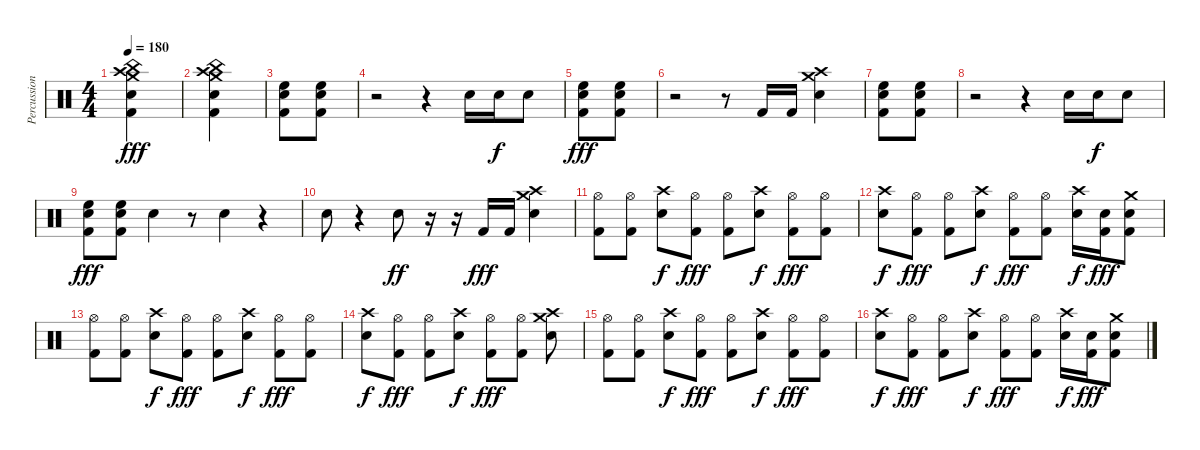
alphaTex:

\track ("Percussion" "Percussion") {instrument percussion}
\staff {score}
\articulation defaults
\ts (4 4)
\tempo 180
\clef neutral
\ks c
("Crash medium (hit)" "China (hit)" "Crash high (hit)" "Snare (hit) 2" "Kick (hit) 2").4{dy fff} |
("Crash medium (hit)" "China (hit)" "Crash high (hit)" "Snare (hit) 2" "Kick (hit) 2").4 |
("High Floor Tom (hit)" "Snare (hit) 2" "Kick (hit) 2").8 ("High Floor Tom (hit)" "Snare (hit) 2" "Kick (hit) 2").8 |
r.2 r.4 "Snare (hit) 2".16 "Snare (hit) 2".16{dy f} "Snare (hit) 2".8 |
("High Floor Tom (hit)" "Snare (hit) 2" "Kick (hit) 2").8{dy fff} ("High Floor Tom (hit)" "Snare (hit) 2" "Kick (hit) 2").8 |
r.2 r.8 "Kick (hit) 2".16 "Kick (hit) 2".16 ("Crash medium (hit)" "Crash high (hit)" "Snare (hit) 2").4 |
("High Floor Tom (hit)" "Snare (hit) 2" "Kick (hit) 2").8 ("High Floor Tom (hit)" "Snare (hit) 2" "Kick (hit) 2").8 |
r.2 r.4 "Snare (hit) 2".16 "Snare (hit) 2".16{dy f} "Snare (hit) 2".8 |
("High Floor Tom (hit)" "Snare (hit) 2" "Kick (hit) 2").8{dy fff} ("High Floor Tom (hit)" "Snare (hit) 2" "Kick (hit) 2").8 "Snare (hit) 2".4 r.8 "Snare (hit) 2".4 r.4 |
"Snare (hit) 2".8 r.4 "Snare (hit) 2".8{dy ff} r.16 r.16 "Kick (hit) 2".16{dy fff} "Kick (hit) 2".16 ("Crash medium (hit)" "Crash high (hit)" "Snare (hit) 2").4 |
("Hi-Hat (open)" "Kick (hit) 2").8 ("Hi-Hat (open)" "Kick (hit) 2").8 ("Crash high (hit)" "Snare (hit) 2").8{dy f} ("Hi-Hat (open)" "Kick (hit) 2").8{dy fff} ("Hi-Hat (open)" "Kick (hit) 2").8 ("Crash high (hit)" "Snare (hit) 2").8{dy f} ("Hi-Hat (open)" "Kick (hit) 2").8{dy fff} ("Hi-Hat (open)" "Kick (hit) 2").8 |
("Crash high (hit)" "Snare (hit) 2").8{dy f} ("Hi-Hat (open)" "Kick (hit) 2").8{dy fff} ("Hi-Hat (open)" "Kick (hit) 2").8 ("Crash high (hit)" "Snare (hit) 2").8{dy f} ("Hi-Hat (open)" "Kick (hit) 2").8{dy fff} ("Hi-Hat (open)" "Kick (hit) 2").8 ("Crash high (hit)" "Snare (hit) 2").16{dy f} ("Snare (hit) 2" "Kick (hit) 2").16{dy fff} ("Crash medium (hit)" "Snare (hit) 2" "Kick (hit) 2").8 |
("Hi-Hat (open)" "Kick (hit) 2").8 ("Hi-Hat (open)" "Kick (hit) 2").8 ("Crash high (hit)" "Snare (hit) 2").8{dy f} ("Hi-Hat (open)" "Kick (hit) 2").8{dy fff} ("Hi-Hat (open)" "Kick (hit) 2").8 ("Crash high (hit)" "Snare (hit) 2").8{dy f} ("Hi-Hat (open)" "Kick (hit) 2").8{dy fff} ("Hi-Hat (open)" "Kick (hit) 2").8 |
("Crash high (hit)" "Snare (hit) 2").8{dy f} ("Hi-Hat (open)" "Kick (hit) 2").8{dy fff} ("Hi-Hat (open)" "Kick (hit) 2").8 ("Crash high (hit)" "Snare (hit) 2").8{dy f} ("Hi-Hat (open)" "Kick (hit) 2").8{dy fff} ("Hi-Hat (open)" "Kick (hit) 2").8 ("Crash medium (hit)" "Crash high (hit)" "Snare (hit) 2").8 |
("Hi-Hat (open)" "Kick (hit) 2").8 ("Hi-Hat (open)" "Kick (hit) 2").8 ("Crash high (hit)" "Snare (hit) 2").8{dy f} ("Hi-Hat (open)" "Kick (hit) 2").8{dy fff} ("Hi-Hat (open)" "Kick (hit) 2").8 ("Crash high (hit)" "Snare (hit) 2").8{dy f} ("Hi-Hat (open)" "Kick (hit) 2").8{dy fff} ("Hi-Hat (open)" "Kick (hit) 2").8 |
("Crash high (hit)" "Snare (hit) 2").8{dy f} ("Hi-Hat (open)" "Kick (hit) 2").8{dy fff} ("Hi-Hat (open)" "Kick (hit) 2").8 ("Crash high (hit)" "Snare (hit) 2").8{dy f} ("Hi-Hat (open)" "Kick (hit) 2").8{dy fff} ("Hi-Hat (open)" "Kick (hit) 2").8 ("Crash high (hit)" "Snare (hit) 2").16{dy f} ("Snare (hit) 2" "Kick (hit) 2").16{dy fff} ("Crash medium (hit)" "Snare (hit) 2" "Kick (hit) 2").8
